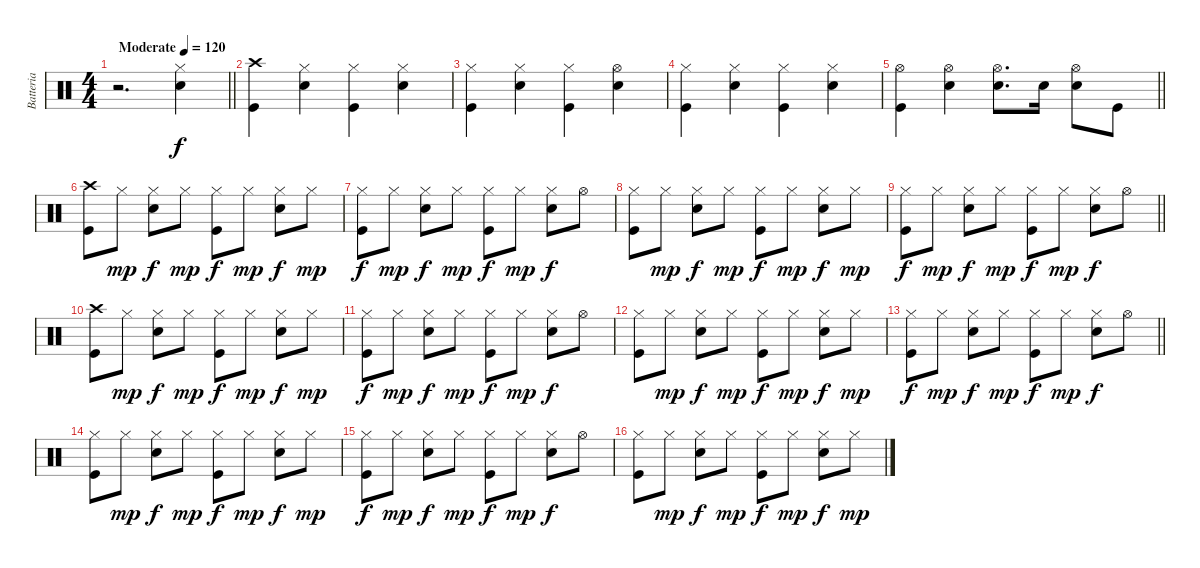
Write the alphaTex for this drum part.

\track ("Batteria" "Batteria") {instrument percussion}
\staff {score}
\articulation defaults
\ts (4 4)
\tempo (120 "Moderate")
\clef neutral
\barLineRight lightlight
\ks c
r.2{d dy f} ("Hi-Hat (closed)" "Snare (hit) 2").4 |
("Kick (hit)" "Crash high (hit)").4 ("Snare (hit) 2" "Hi-Hat (closed)").4 ("Kick (hit)" "Hi-Hat (closed)").4 ("Snare (hit) 2" "Hi-Hat (closed)").4 |
("Kick (hit)" "Hi-Hat (closed)").4 ("Snare (hit) 2" "Hi-Hat (closed)").4 ("Kick (hit)" "Hi-Hat (closed)").4 ("Snare (hit) 2" "Hi-Hat (open)").4 |
("Kick (hit)" "Hi-Hat (closed)").4 ("Snare (hit) 2" "Hi-Hat (closed)").4 ("Kick (hit)" "Hi-Hat (closed)").4 ("Snare (hit) 2" "Hi-Hat (closed)").4 |
\barLineRight lightlight
("Kick (hit)" "Hi-Hat (open)").4 ("Snare (hit) 2" "Hi-Hat (open)").4 ("Snare (hit) 2" "Hi-Hat (open)").8{d} "Snare (hit) 2".16 ("Snare (hit) 2" "Hi-Hat (open)").8 "Kick (hit)".8 |
("Kick (hit)" "Crash high (hit)").8 "Hi-Hat (closed)".8{dy mp} ("Snare (hit) 2" "Hi-Hat (closed)").8{dy f} "Hi-Hat (closed)".8{dy mp} ("Kick (hit)" "Hi-Hat (closed)").8{dy f} "Hi-Hat (closed)".8{dy mp} ("Snare (hit) 2" "Hi-Hat (closed)").8{dy f} "Hi-Hat (closed)".8{dy mp} |
("Kick (hit)" "Hi-Hat (closed)").8{dy f} "Hi-Hat (closed)".8{dy mp} ("Snare (hit) 2" "Hi-Hat (closed)").8{dy f} "Hi-Hat (closed)".8{dy mp} ("Kick (hit)" "Hi-Hat (closed)").8{dy f} "Hi-Hat (closed)".8{dy mp} ("Snare (hit) 2" "Hi-Hat (closed)").8{dy f} "Hi-Hat (open)".8 |
("Kick (hit)" "Hi-Hat (closed)").8 "Hi-Hat (closed)".8{dy mp} ("Snare (hit) 2" "Hi-Hat (closed)").8{dy f} "Hi-Hat (closed)".8{dy mp} ("Kick (hit)" "Hi-Hat (closed)").8{dy f} "Hi-Hat (closed)".8{dy mp} ("Snare (hit) 2" "Hi-Hat (closed)").8{dy f} "Hi-Hat (closed)".8{dy mp} |
\barLineRight lightlight
("Kick (hit)" "Hi-Hat (closed)").8{dy f} "Hi-Hat (closed)".8{dy mp} ("Snare (hit) 2" "Hi-Hat (closed)").8{dy f} "Hi-Hat (closed)".8{dy mp} ("Kick (hit)" "Hi-Hat (closed)").8{dy f} "Hi-Hat (closed)".8{dy mp} ("Snare (hit) 2" "Hi-Hat (closed)").8{dy f} "Hi-Hat (open)".8 |
("Kick (hit)" "Crash high (hit)").8 "Hi-Hat (closed)".8{dy mp} ("Snare (hit) 2" "Hi-Hat (closed)").8{dy f} "Hi-Hat (closed)".8{dy mp} ("Kick (hit)" "Hi-Hat (closed)").8{dy f} "Hi-Hat (closed)".8{dy mp} ("Snare (hit) 2" "Hi-Hat (closed)").8{dy f} "Hi-Hat (closed)".8{dy mp} |
("Kick (hit)" "Hi-Hat (closed)").8{dy f} "Hi-Hat (closed)".8{dy mp} ("Snare (hit) 2" "Hi-Hat (closed)").8{dy f} "Hi-Hat (closed)".8{dy mp} ("Kick (hit)" "Hi-Hat (closed)").8{dy f} "Hi-Hat (closed)".8{dy mp} ("Snare (hit) 2" "Hi-Hat (closed)").8{dy f} "Hi-Hat (open)".8 |
("Kick (hit)" "Hi-Hat (closed)").8 "Hi-Hat (closed)".8{dy mp} ("Snare (hit) 2" "Hi-Hat (closed)").8{dy f} "Hi-Hat (closed)".8{dy mp} ("Kick (hit)" "Hi-Hat (closed)").8{dy f} "Hi-Hat (closed)".8{dy mp} ("Snare (hit) 2" "Hi-Hat (closed)").8{dy f} "Hi-Hat (closed)".8{dy mp} |
\barLineRight lightlight
("Kick (hit)" "Hi-Hat (closed)").8{dy f} "Hi-Hat (closed)".8{dy mp} ("Snare (hit) 2" "Hi-Hat (closed)").8{dy f} "Hi-Hat (closed)".8{dy mp} ("Kick (hit)" "Hi-Hat (closed)").8{dy f} "Hi-Hat (closed)".8{dy mp} ("Snare (hit) 2" "Hi-Hat (closed)").8{dy f} "Hi-Hat (open)".8 |
("Kick (hit)" "Hi-Hat (closed)").8 "Hi-Hat (closed)".8{dy mp} ("Snare (hit) 2" "Hi-Hat (closed)").8{dy f} "Hi-Hat (closed)".8{dy mp} ("Kick (hit)" "Hi-Hat (closed)").8{dy f} "Hi-Hat (closed)".8{dy mp} ("Snare (hit) 2" "Hi-Hat (closed)").8{dy f} "Hi-Hat (closed)".8{dy mp} |
("Kick (hit)" "Hi-Hat (closed)").8{dy f} "Hi-Hat (closed)".8{dy mp} ("Snare (hit) 2" "Hi-Hat (closed)").8{dy f} "Hi-Hat (closed)".8{dy mp} ("Kick (hit)" "Hi-Hat (closed)").8{dy f} "Hi-Hat (closed)".8{dy mp} ("Snare (hit) 2" "Hi-Hat (closed)").8{dy f} "Hi-Hat (open)".8 |
("Kick (hit)" "Hi-Hat (closed)").8 "Hi-Hat (closed)".8{dy mp} ("Snare (hit) 2" "Hi-Hat (closed)").8{dy f} "Hi-Hat (closed)".8{dy mp} ("Kick (hit)" "Hi-Hat (closed)").8{dy f} "Hi-Hat (closed)".8{dy mp} ("Snare (hit) 2" "Hi-Hat (closed)").8{dy f} "Hi-Hat (closed)".8{dy mp}
